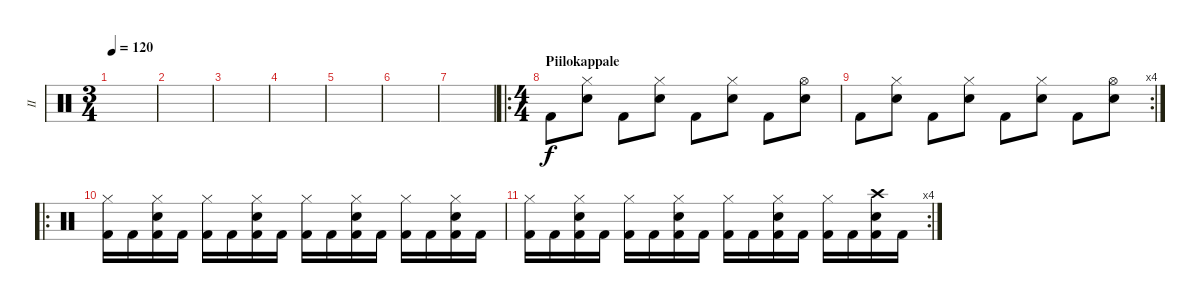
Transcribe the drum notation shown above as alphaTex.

\track ("II" "II") {instrument percussion}
\staff {score}
\articulation defaults
\ts (3 4)
\tempo 120
\clef neutral
\ks c
|
|
|
|
|
|
|
\ro
\ts (4 4)
\section ("" "Piilokappale")
"Kick (hit) 2".8 ("Hi-Hat (closed)" "Snare (hit) 2").8 "Kick (hit) 2".8 ("Hi-Hat (closed)" "Snare (hit) 2").8 "Kick (hit) 2".8 ("Hi-Hat (closed)" "Snare (hit) 2").8 "Kick (hit) 2".8 ("Hi-Hat (open)" "Snare (hit) 2").8 |
\rc 4 "Kick (hit) 2".8
("Hi-Hat (closed)" "Snare (hit) 2").8 "Kick (hit) 2".8 ("Hi-Hat (closed)" "Snare (hit) 2").8 "Kick (hit) 2".8 ("Hi-Hat (closed)" "Snare (hit) 2").8 "Kick (hit) 2".8 ("Hi-Hat (open)" "Snare (hit) 2").8 |
\ro
("Kick (hit) 2" "Hi-Hat (closed)").16 "Kick (hit) 2".16 ("Kick (hit) 2" "Hi-Hat (closed)" "Snare (hit) 2").16 "Kick (hit) 2".16 ("Kick (hit) 2" "Hi-Hat (closed)").16 "Kick (hit) 2".16 ("Kick (hit) 2" "Hi-Hat (closed)" "Snare (hit) 2").16 "Kick (hit) 2".16 ("Kick (hit) 2" "Hi-Hat (closed)").16 "Kick (hit) 2".16 ("Kick (hit) 2" "Hi-Hat (closed)" "Snare (hit) 2").16 "Kick (hit) 2".16 ("Kick (hit) 2" "Hi-Hat (closed)").16 "Kick (hit) 2".16 ("Kick (hit) 2" "Hi-Hat (closed)" "Snare (hit) 2").16 "Kick (hit) 2".16 |
\rc 4
("Kick (hit) 2" "Hi-Hat (closed)").16 "Kick (hit) 2".16 ("Kick (hit) 2" "Hi-Hat (closed)" "Snare (hit) 2").16 "Kick (hit) 2".16 ("Kick (hit) 2" "Hi-Hat (closed)").16 "Kick (hit) 2".16 ("Kick (hit) 2" "Hi-Hat (closed)" "Snare (hit) 2").16 "Kick (hit) 2".16 ("Kick (hit) 2" "Hi-Hat (closed)").16 "Kick (hit) 2".16 ("Kick (hit) 2" "Hi-Hat (closed)" "Snare (hit) 2").16 "Kick (hit) 2".16 ("Kick (hit) 2" "Hi-Hat (closed)").16 "Kick (hit) 2".16 ("Kick (hit) 2" "Crash high (hit)" "Snare (hit) 2").16 "Kick (hit) 2".16
